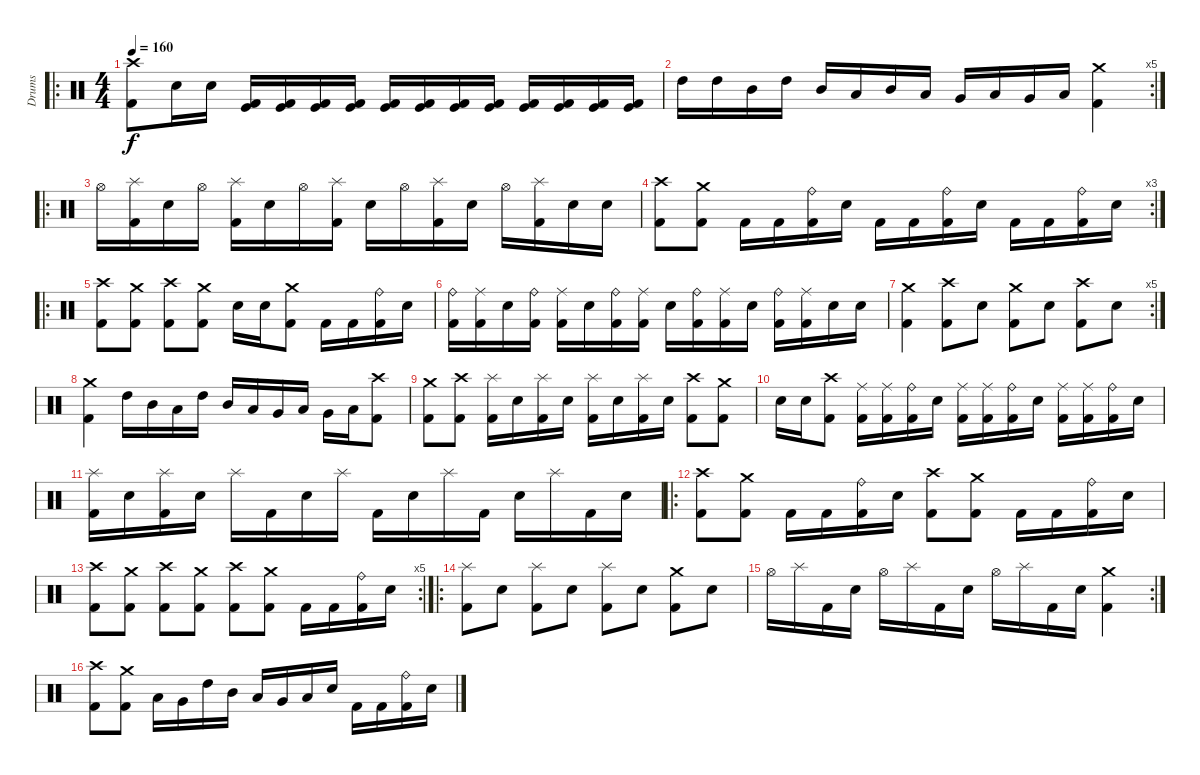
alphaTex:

\track ("Drums" "Drums") {instrument percussion}
\staff {score}
\articulation defaults
\ro
\ts (4 4)
\tempo 160
\clef neutral
\ks c
("Crash high (hit)" "Kick (hit) 2").8{dy f} "Electric Snare (hit)".16 "Electric Snare (hit)".16 ("Kick (hit)" "Kick (hit) 2").16 ("Kick (hit) 2" "Kick (hit)").16 ("Kick (hit)" "Kick (hit) 2").16 ("Kick (hit) 2" "Kick (hit)").16 ("Kick (hit)" "Kick (hit) 2").16 ("Kick (hit) 2" "Kick (hit)").16 ("Kick (hit)" "Kick (hit) 2").16 ("Kick (hit) 2" "Kick (hit)").16 ("Kick (hit)" "Kick (hit) 2").16 ("Kick (hit) 2" "Kick (hit)").16 ("Kick (hit)" "Kick (hit) 2").16 ("Kick (hit) 2" "Kick (hit)").16 |
\rc 5 "High Tom (hit)".16 "High Tom (hit)".16 "Mid Tom (hit)".16 "High Tom (hit)".16 "Mid Tom (hit)".16 "Low Tom (hit)".16 "Mid Tom (hit)".16 "Low Tom (hit)".16 "Very Low Tom (hit)".16 "Low Tom (hit)".16 "Very Low Tom (hit)".16 "Low Floor Tom (hit)".16
("Crash medium (hit)" "Kick (hit) 2").4 |
\ro "Hi-Hat (open)".16
("Splash (hit)" "Kick (hit) 2").16 "Electric Snare (hit)".16 "Hi-Hat (open)".16 ("Splash (hit)" "Kick (hit) 2").16 "Electric Snare (hit)".16 "Hi-Hat (open)".16 ("Splash (hit)" "Kick (hit) 2").16 "Electric Snare (hit)".16 "Hi-Hat (open)".16 ("Splash (hit)" "Kick (hit) 2").16 "Electric Snare (hit)".16 "Hi-Hat (open)".16 ("Splash (hit)" "Kick (hit) 2").16 "Electric Snare (hit)".16 "Electric Snare (hit)".16 |
\rc 3
("Crash high (hit)" "Kick (hit) 2").8 ("Crash medium (hit)" "Kick (hit) 2").8 "Kick (hit) 2".16 "Kick (hit) 2".16 ("Ride (bell)" "Kick (hit) 2").16 "Electric Snare (hit)".16 "Kick (hit) 2".16 "Kick (hit) 2".16 ("Ride (bell)" "Kick (hit) 2").16 "Electric Snare (hit)".16 "Kick (hit) 2".16 "Kick (hit) 2".16 ("Ride (bell)" "Kick (hit) 2").16 "Electric Snare (hit)".16 |
\ro
("Crash high (hit)" "Kick (hit) 2").8 ("Crash medium (hit)" "Kick (hit) 2").8 ("Crash high (hit)" "Kick (hit) 2").8 ("Crash medium (hit)" "Kick (hit) 2").8 "Electric Snare (hit)".16 "Electric Snare (hit)".16 ("Crash medium (hit)" "Kick (hit) 2").8 "Kick (hit) 2".16 "Kick (hit) 2".16 ("Ride (bell)" "Kick (hit) 2").16 "Electric Snare (hit)".16 |
("Ride (bell)" "Kick (hit) 2").16 ("Ride (middle)" "Kick (hit) 2").16 "Electric Snare (hit)".16 ("Ride (bell)" "Kick (hit) 2").16 ("Ride (middle)" "Kick (hit) 2").16 "Electric Snare (hit)".16 ("Ride (bell)" "Kick (hit) 2").16 ("Ride (middle)" "Kick (hit) 2").16 "Electric Snare (hit)".16 ("Ride (bell)" "Kick (hit) 2").16 ("Ride (middle)" "Kick (hit) 2").16 "Electric Snare (hit)".16 ("Ride (bell)" "Kick (hit) 2").16 ("Ride (middle)" "Kick (hit) 2").16 "Electric Snare (hit)".16 "Electric Snare (hit)".16 |
\rc 5
("Crash medium (hit)" "Kick (hit) 2").4 ("Crash high (hit)" "Kick (hit) 2").8 "Electric Snare (hit)".8 ("Crash medium (hit)" "Kick (hit) 2").8 "Electric Snare (hit)".8 ("Crash high (hit)" "Kick (hit) 2").8 "Electric Snare (hit)".8 |
("Crash medium (hit)" "Kick (hit) 2").4 "High Tom (hit)".16 "Mid Tom (hit)".16 "Low Tom (hit)".16 "High Tom (hit)".16 "Mid Tom (hit)".16 "Low Tom (hit)".16 "Very Low Tom (hit)".16 "Low Tom (hit)".16 "Very Low Tom (hit)".16 "Low Floor Tom (hit)".16 ("Crash high (hit)" "Kick (hit) 2").8 |
("Crash medium (hit)" "Kick (hit) 2").8 ("Crash high (hit)" "Kick (hit) 2").8 ("Splash (hit)" "Kick (hit) 2").16 "Electric Snare (hit)".16 ("Splash (hit)" "Kick (hit) 2").16 "Electric Snare (hit)".16 ("Splash (hit)" "Kick (hit) 2").16 "Electric Snare (hit)".16 ("Splash (hit)" "Kick (hit) 2").16 "Electric Snare (hit)".16 ("Crash high (hit)" "Kick (hit) 2").8 ("Crash medium (hit)" "Kick (hit) 2").8 |
"Electric Snare (hit)".16 "Electric Snare (hit)".16 ("Crash high (hit)" "Kick (hit) 2").8 ("Ride (middle)" "Kick (hit) 2").16 ("Ride (middle)" "Kick (hit) 2").16 ("Ride (bell)" "Kick (hit) 2").16 "Electric Snare (hit)".16 ("Ride (middle)" "Kick (hit) 2").16 ("Ride (middle)" "Kick (hit) 2").16 ("Ride (bell)" "Kick (hit) 2").16 "Electric Snare (hit)".16 ("Ride (middle)" "Kick (hit) 2").16 ("Ride (middle)" "Kick (hit) 2").16 ("Ride (bell)" "Kick (hit) 2").16 "Electric Snare (hit)".16 |
("Splash (hit)" "Kick (hit) 2").16 "Electric Snare (hit)".16 ("Splash (hit)" "Kick (hit) 2").16 "Electric Snare (hit)".16 "Splash (hit)".16 "Kick (hit) 2".16 "Electric Snare (hit)".16 "Splash (hit)".16 "Kick (hit) 2".16 "Electric Snare (hit)".16 "Splash (hit)".16 "Kick (hit) 2".16 "Electric Snare (hit)".16 "Splash (hit)".16 "Kick (hit) 2".16 "Electric Snare (hit)".16 |
\ro
("Crash high (hit)" "Kick (hit) 2").8 ("Crash medium (hit)" "Kick (hit) 2").8 "Kick (hit) 2".16 "Kick (hit) 2".16 ("Ride (bell)" "Kick (hit) 2").16 "Electric Snare (hit)".16 ("Crash high (hit)" "Kick (hit) 2").8 ("Crash medium (hit)" "Kick (hit) 2").8 "Kick (hit) 2".16 "Kick (hit) 2".16 ("Ride (bell)" "Kick (hit) 2").16 "Electric Snare (hit)".16 |
\rc 5
("Crash high (hit)" "Kick (hit) 2").8 ("Crash medium (hit)" "Kick (hit) 2").8 ("Crash high (hit)" "Kick (hit) 2").8 ("Crash medium (hit)" "Kick (hit) 2").8 ("Crash high (hit)" "Kick (hit) 2").8 ("Crash medium (hit)" "Kick (hit) 2").8 "Kick (hit) 2".16 "Kick (hit) 2".16 ("Ride (bell)" "Kick (hit) 2").16 "Electric Snare (hit)".16 |
\ro
("Splash (hit)" "Kick (hit) 2").8 "Electric Snare (hit)".8 ("Splash (hit)" "Kick (hit) 2").8 "Electric Snare (hit)".8 ("Splash (hit)" "Kick (hit) 2").8 "Electric Snare (hit)".8 ("Crash medium (hit)" "Kick (hit) 2").8 "Electric Snare (hit)".8 |
\rc 2 "Hi-Hat (open)".16 "Splash (hit)".16 "Kick (hit) 2".16 "Electric Snare (hit)".16 "Hi-Hat (open)".16 "Splash (hit)".16 "Kick (hit) 2".16 "Electric Snare (hit)".16 "Hi-Hat (open)".16 "Splash (hit)".16 "Kick (hit) 2".16 "Electric Snare (hit)".16
("Crash medium (hit)" "Kick (hit) 2").4 |
("Crash high (hit)" "Kick (hit) 2").8 ("Crash medium (hit)" "Kick (hit) 2").8 "Low Tom (hit)".16 "Very Low Tom (hit)".16 "High Tom (hit)".16 "Mid Tom (hit)".16 "Low Tom (hit)".16 "Very Low Tom (hit)".16 "Low Floor Tom (hit)".16 "Electric Snare (hit)".16 "Kick (hit) 2".16 "Kick (hit) 2".16 ("Ride (bell)" "Kick (hit) 2").16 "Electric Snare (hit)".16
